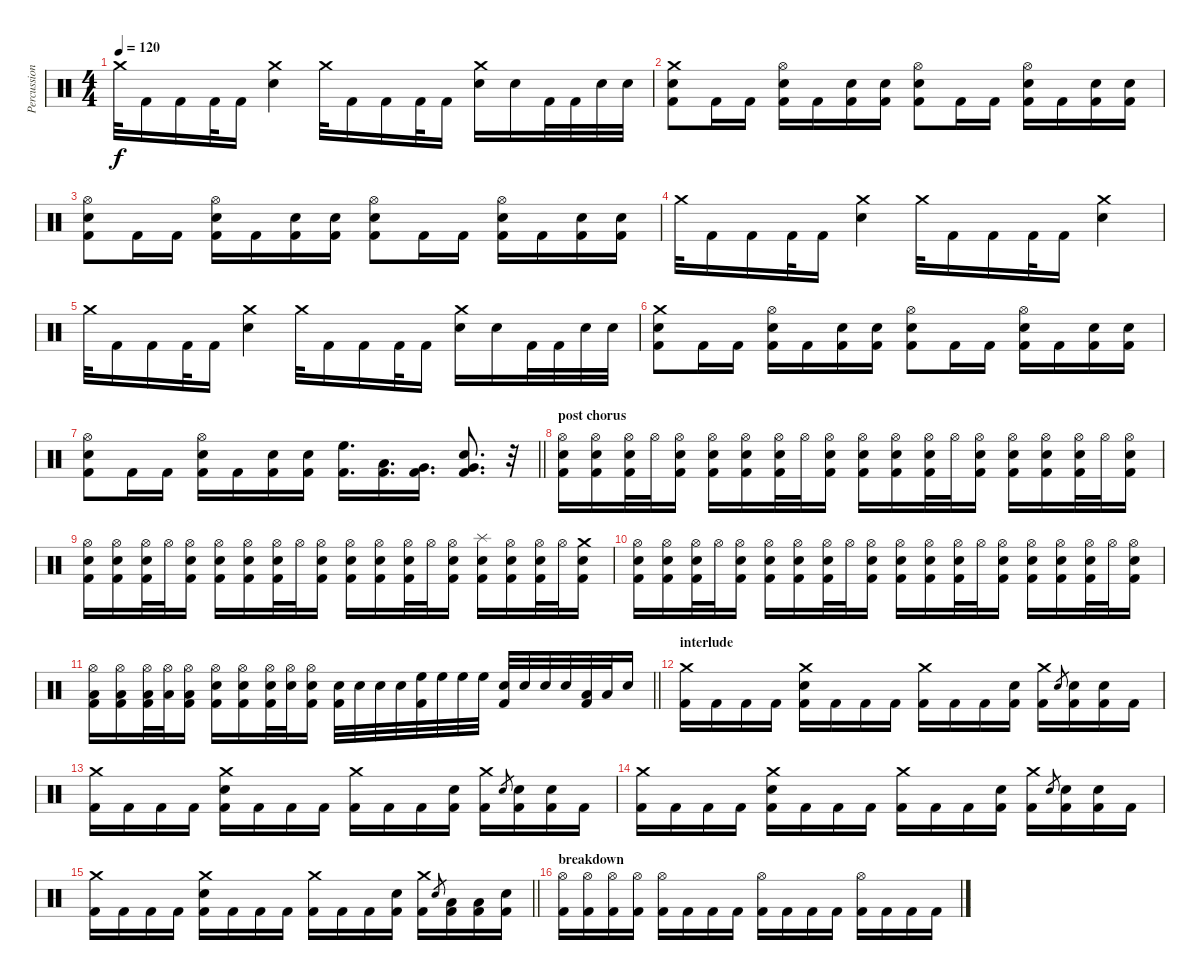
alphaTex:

\track ("Percussion" "Percussion") {instrument percussion}
\staff {score}
\articulation defaults
\ts (4 4)
\tempo 120
\clef neutral
\ks c "Crash medium (hit)".32{dy f} "Kick (hit) 2".16 "Kick (hit) 2".16 "Kick (hit) 2".32 "Kick (hit) 2".16
("Crash medium (hit)" "Snare (hit) 2").4 "Crash medium (hit)".32 "Kick (hit) 2".16 "Kick (hit) 2".16 "Kick (hit) 2".32 "Kick (hit) 2".16 ("Crash medium (hit)" "Snare (hit) 2").16 "Snare (hit) 2".16 "Kick (hit) 2".32 "Kick (hit) 2".32 "Snare (hit) 2".32 "Snare (hit) 2".32 |
("Crash medium (hit)" "Snare (hit) 2" "Kick (hit) 2").8 "Kick (hit) 2".16 "Kick (hit) 2".16 ("Hi-Hat (open)" "Snare (hit) 2" "Kick (hit) 2").16 "Kick (hit) 2".16 ("Snare (hit) 2" "Kick (hit) 2").16 ("Snare (hit) 2" "Kick (hit) 2").16 ("Hi-Hat (open)" "Snare (hit) 2" "Kick (hit) 2").8 "Kick (hit) 2".16 "Kick (hit) 2".16 ("Hi-Hat (open)" "Snare (hit) 2" "Kick (hit) 2").16 "Kick (hit) 2".16 ("Snare (hit) 2" "Kick (hit) 2").16 ("Snare (hit) 2" "Kick (hit) 2").16 |
("Hi-Hat (open)" "Snare (hit) 2" "Kick (hit) 2").8 "Kick (hit) 2".16 "Kick (hit) 2".16 ("Hi-Hat (open)" "Snare (hit) 2" "Kick (hit) 2").16 "Kick (hit) 2".16 ("Snare (hit) 2" "Kick (hit) 2").16 ("Snare (hit) 2" "Kick (hit) 2").16 ("Hi-Hat (open)" "Snare (hit) 2" "Kick (hit) 2").8 "Kick (hit) 2".16 "Kick (hit) 2".16 ("Hi-Hat (open)" "Snare (hit) 2" "Kick (hit) 2").16 "Kick (hit) 2".16 ("Snare (hit) 2" "Kick (hit) 2").16 ("Snare (hit) 2" "Kick (hit) 2").16 |
"Crash medium (hit)".32 "Kick (hit) 2".16 "Kick (hit) 2".16 "Kick (hit) 2".32 "Kick (hit) 2".16 ("Crash medium (hit)" "Snare (hit) 2").4 "Crash medium (hit)".32 "Kick (hit) 2".16 "Kick (hit) 2".16 "Kick (hit) 2".32 "Kick (hit) 2".16 ("Crash medium (hit)" "Snare (hit) 2").4 |
"Crash medium (hit)".32 "Kick (hit) 2".16 "Kick (hit) 2".16 "Kick (hit) 2".32 "Kick (hit) 2".16 ("Crash medium (hit)" "Snare (hit) 2").4 "Crash medium (hit)".32 "Kick (hit) 2".16 "Kick (hit) 2".16 "Kick (hit) 2".32 "Kick (hit) 2".16 ("Crash medium (hit)" "Snare (hit) 2").16 "Snare (hit) 2".16 "Kick (hit) 2".32 "Kick (hit) 2".32 "Snare (hit) 2".32 "Snare (hit) 2".32 |
("Crash medium (hit)" "Snare (hit) 2" "Kick (hit) 2").8 "Kick (hit) 2".16 "Kick (hit) 2".16 ("Hi-Hat (open)" "Snare (hit) 2" "Kick (hit) 2").16 "Kick (hit) 2".16 ("Snare (hit) 2" "Kick (hit) 2").16 ("Snare (hit) 2" "Kick (hit) 2").16 ("Hi-Hat (open)" "Snare (hit) 2" "Kick (hit) 2").8 "Kick (hit) 2".16 "Kick (hit) 2".16 ("Hi-Hat (open)" "Snare (hit) 2" "Kick (hit) 2").16 "Kick (hit) 2".16 ("Snare (hit) 2" "Kick (hit) 2").16 ("Snare (hit) 2" "Kick (hit) 2").16 |
\barLineRight lightlight
("Hi-Hat (open)" "Snare (hit) 2" "Kick (hit) 2").8 "Kick (hit) 2".16 "Kick (hit) 2".16 ("Hi-Hat (open)" "Snare (hit) 2" "Kick (hit) 2").16 "Kick (hit) 2".16 ("Snare (hit) 2" "Kick (hit) 2").16 ("Snare (hit) 2" "Kick (hit) 2").16 ("High Floor Tom (hit)" "Kick (hit) 2").16{d} ("Low Tom (hit)" "Kick (hit) 2").16{d} ("Very Low Tom (hit)" "Kick (hit) 2").16{d} ("Snare (hit) 2" "Very Low Tom (hit)" "Kick (hit) 2").8{d} r.32 |
\section ("" "post chorus")
("Hi-Hat (open)" "Snare (hit) 2" "Kick (hit) 2").16 ("Hi-Hat (open)" "Snare (hit) 2" "Kick (hit) 2").16 ("Hi-Hat (open)" "Snare (hit) 2" "Kick (hit) 2").32 "Hi-Hat (open)".32 ("Hi-Hat (open)" "Snare (hit) 2" "Kick (hit) 2").16 ("Hi-Hat (open)" "Snare (hit) 2" "Kick (hit) 2").16 ("Hi-Hat (open)" "Snare (hit) 2" "Kick (hit) 2").16 ("Hi-Hat (open)" "Snare (hit) 2" "Kick (hit) 2").32 "Hi-Hat (open)".32 ("Hi-Hat (open)" "Snare (hit) 2" "Kick (hit) 2").16 ("Hi-Hat (open)" "Snare (hit) 2" "Kick (hit) 2").16 ("Hi-Hat (open)" "Snare (hit) 2" "Kick (hit) 2").16 ("Hi-Hat (open)" "Snare (hit) 2" "Kick (hit) 2").32 "Hi-Hat (open)".32 ("Hi-Hat (open)" "Snare (hit) 2" "Kick (hit) 2").16 ("Hi-Hat (open)" "Snare (hit) 2" "Kick (hit) 2").16 ("Hi-Hat (open)" "Snare (hit) 2" "Kick (hit) 2").16 ("Hi-Hat (open)" "Snare (hit) 2" "Kick (hit) 2").32 "Hi-Hat (open)".32 ("Hi-Hat (open)" "Snare (hit) 2" "Kick (hit) 2").16 |
("Hi-Hat (open)" "Snare (hit) 2" "Kick (hit) 2").16 ("Hi-Hat (open)" "Snare (hit) 2" "Kick (hit) 2").16 ("Hi-Hat (open)" "Snare (hit) 2" "Kick (hit) 2").32 "Hi-Hat (open)".32 ("Hi-Hat (open)" "Snare (hit) 2" "Kick (hit) 2").16 ("Hi-Hat (open)" "Snare (hit) 2" "Kick (hit) 2").16 ("Hi-Hat (open)" "Snare (hit) 2" "Kick (hit) 2").16 ("Hi-Hat (open)" "Snare (hit) 2" "Kick (hit) 2").32 "Hi-Hat (open)".32 ("Hi-Hat (open)" "Snare (hit) 2" "Kick (hit) 2").16 ("Hi-Hat (open)" "Snare (hit) 2" "Kick (hit) 2").16 ("Hi-Hat (open)" "Snare (hit) 2" "Kick (hit) 2").16 ("Hi-Hat (open)" "Snare (hit) 2" "Kick (hit) 2").32 "Hi-Hat (open)".32 ("Hi-Hat (open)" "Snare (hit) 2" "Kick (hit) 2").16 ("Splash (hit)" "Snare (hit) 2" "Kick (hit) 2").16 ("Hi-Hat (open)" "Snare (hit) 2" "Kick (hit) 2").16 ("Hi-Hat (open)" "Snare (hit) 2" "Kick (hit) 2").32 "Hi-Hat (open)".32 ("Crash medium (hit)" "Snare (hit) 2" "Kick (hit) 2").16 |
("Hi-Hat (open)" "Snare (hit) 2" "Kick (hit) 2").16 ("Hi-Hat (open)" "Snare (hit) 2" "Kick (hit) 2").16 ("Hi-Hat (open)" "Snare (hit) 2" "Kick (hit) 2").32 "Hi-Hat (open)".32 ("Hi-Hat (open)" "Snare (hit) 2" "Kick (hit) 2").16 ("Hi-Hat (open)" "Snare (hit) 2" "Kick (hit) 2").16 ("Hi-Hat (open)" "Snare (hit) 2" "Kick (hit) 2").16 ("Hi-Hat (open)" "Snare (hit) 2" "Kick (hit) 2").32 "Hi-Hat (open)".32 ("Hi-Hat (open)" "Snare (hit) 2" "Kick (hit) 2").16 ("Hi-Hat (open)" "Snare (hit) 2" "Kick (hit) 2").16 ("Hi-Hat (open)" "Snare (hit) 2" "Kick (hit) 2").16 ("Hi-Hat (open)" "Snare (hit) 2" "Kick (hit) 2").32 "Hi-Hat (open)".32 ("Hi-Hat (open)" "Snare (hit) 2" "Kick (hit) 2").16 ("Hi-Hat (open)" "Snare (hit) 2" "Kick (hit) 2").16 ("Hi-Hat (open)" "Snare (hit) 2" "Kick (hit) 2").16 ("Hi-Hat (open)" "Snare (hit) 2" "Kick (hit) 2").32 "Hi-Hat (open)".32 ("Hi-Hat (open)" "Snare (hit) 2" "Kick (hit) 2").16 |
\barLineRight lightlight
("Hi-Hat (open)" "Low Tom (hit)" "Kick (hit) 2").16 ("Hi-Hat (open)" "Low Tom (hit)" "Kick (hit) 2").16 ("Hi-Hat (open)" "Low Tom (hit)" "Kick (hit) 2").32 ("Hi-Hat (open)" "Low Tom (hit)").32 ("Hi-Hat (open)" "Low Tom (hit)" "Kick (hit) 2").16 ("Hi-Hat (open)" "Snare (hit) 2" "Kick (hit) 2").16 ("Hi-Hat (open)" "Snare (hit) 2" "Kick (hit) 2").16 ("Hi-Hat (open)" "Snare (hit) 2" "Kick (hit) 2").32 ("Hi-Hat (open)" "Snare (hit) 2").32 ("Hi-Hat (open)" "Snare (hit) 2" "Kick (hit) 2").16 ("Snare (hit) 2" "Kick (hit) 2").32 "Snare (hit) 2".32 "Snare (hit) 2".32 "Snare (hit) 2".32 ("High Floor Tom (hit)" "Kick (hit) 2").32 "High Floor Tom (hit)".32 "High Floor Tom (hit)".32 "High Floor Tom (hit)".32 ("Snare (hit) 2" "Kick (hit) 2").32 "Snare (hit) 2".32 "Snare (hit) 2".32 "Snare (hit) 2".32 ("Low Tom (hit)" "Kick (hit) 2").32 "Low Tom (hit)".32 "Snare (hit) 2".16 |
\section ("" "interlude")
("Crash medium (hit)" "Kick (hit) 2").16 "Kick (hit) 2".16 "Kick (hit) 2".16 "Kick (hit) 2".16 ("Crash medium (hit)" "Snare (hit) 2" "Kick (hit) 2").16 "Kick (hit) 2".16 "Kick (hit) 2".16 "Kick (hit) 2".16 ("Crash medium (hit)" "Kick (hit) 2").16 "Kick (hit) 2".16 "Kick (hit) 2".16 ("Snare (hit) 2" "Kick (hit) 2").16 ("Crash medium (hit)" "Kick (hit) 2").16 "Snare (hit) 2".8{gr} ("Snare (hit) 2" "Kick (hit) 2").16 ("Snare (hit) 2" "Kick (hit) 2").16 "Kick (hit) 2".16 |
("Crash medium (hit)" "Kick (hit) 2").16 "Kick (hit) 2".16 "Kick (hit) 2".16 "Kick (hit) 2".16 ("Crash medium (hit)" "Snare (hit) 2" "Kick (hit) 2").16 "Kick (hit) 2".16 "Kick (hit) 2".16 "Kick (hit) 2".16 ("Crash medium (hit)" "Kick (hit) 2").16 "Kick (hit) 2".16 "Kick (hit) 2".16 ("Snare (hit) 2" "Kick (hit) 2").16 ("Crash medium (hit)" "Kick (hit) 2").16 "Snare (hit) 2".8{gr} ("Snare (hit) 2" "Kick (hit) 2").16 ("Snare (hit) 2" "Kick (hit) 2").16 "Kick (hit) 2".16 |
("Crash medium (hit)" "Kick (hit) 2").16 "Kick (hit) 2".16 "Kick (hit) 2".16 "Kick (hit) 2".16 ("Crash medium (hit)" "Snare (hit) 2" "Kick (hit) 2").16 "Kick (hit) 2".16 "Kick (hit) 2".16 "Kick (hit) 2".16 ("Crash medium (hit)" "Kick (hit) 2").16 "Kick (hit) 2".16 "Kick (hit) 2".16 ("Snare (hit) 2" "Kick (hit) 2").16 ("Crash medium (hit)" "Kick (hit) 2").16 "Snare (hit) 2".8{gr} ("Snare (hit) 2" "Kick (hit) 2").16 ("Snare (hit) 2" "Kick (hit) 2").16 "Kick (hit) 2".16 |
\barLineRight lightlight
("Crash medium (hit)" "Kick (hit) 2").16 "Kick (hit) 2".16 "Kick (hit) 2".16 "Kick (hit) 2".16 ("Crash medium (hit)" "Snare (hit) 2" "Kick (hit) 2").16 "Kick (hit) 2".16 "Kick (hit) 2".16 "Kick (hit) 2".16 ("Crash medium (hit)" "Kick (hit) 2").16 "Kick (hit) 2".16 "Kick (hit) 2".16 ("Snare (hit) 2" "Kick (hit) 2").16 ("Crash medium (hit)" "Kick (hit) 2").16 "Snare (hit) 2".8{gr} ("Low Tom (hit)" "Kick (hit) 2").16 ("Low Tom (hit)" "Kick (hit) 2").16 ("Snare (hit) 2" "Kick (hit) 2").16 |
\section ("" "breakdown")
("Hi-Hat (open)" "Kick (hit) 2").16 ("Hi-Hat (open)" "Kick (hit) 2").16 ("Hi-Hat (open)" "Kick (hit) 2").16 ("Hi-Hat (open)" "Kick (hit) 2").16 ("Hi-Hat (open)" "Kick (hit) 2").16 "Kick (hit) 2".16 "Kick (hit) 2".16 "Kick (hit) 2".16 ("Hi-Hat (open)" "Kick (hit) 2").16 "Kick (hit) 2".16 "Kick (hit) 2".16 "Kick (hit) 2".16 ("Hi-Hat (open)" "Kick (hit) 2").16 "Kick (hit) 2".16 "Kick (hit) 2".16 "Kick (hit) 2".16
